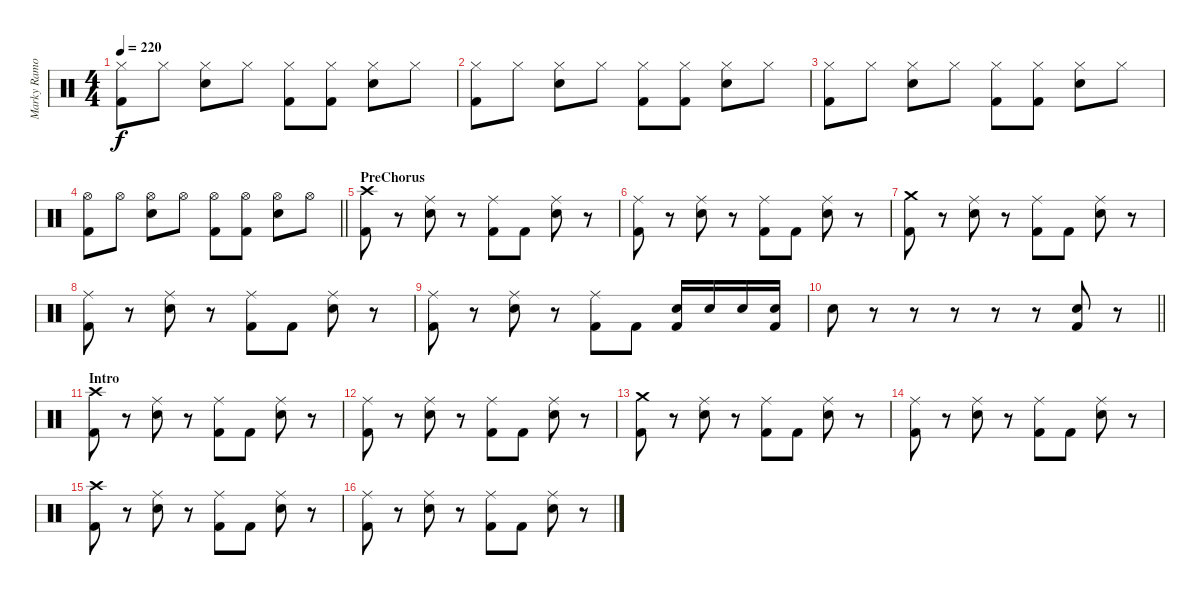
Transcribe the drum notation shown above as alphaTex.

\track ("Marky Ramone" "Marky Ramo") {instrument percussion}
\staff {score}
\articulation defaults
\ts (4 4)
\tempo 220
\clef neutral
\ks c
("Hi-Hat (closed)" "Kick (hit) 2").8{dy f} "Hi-Hat (closed)".8 ("Hi-Hat (closed)" "Electric Snare (hit)").8 "Hi-Hat (closed)".8 ("Hi-Hat (closed)" "Kick (hit) 2").8 ("Hi-Hat (closed)" "Kick (hit) 2").8 ("Hi-Hat (closed)" "Electric Snare (hit)").8 "Hi-Hat (closed)".8 |
("Hi-Hat (closed)" "Kick (hit) 2").8 "Hi-Hat (closed)".8 ("Hi-Hat (closed)" "Electric Snare (hit)").8 "Hi-Hat (closed)".8 ("Hi-Hat (closed)" "Kick (hit) 2").8 ("Hi-Hat (closed)" "Kick (hit) 2").8 ("Hi-Hat (closed)" "Electric Snare (hit)").8 "Hi-Hat (closed)".8 |
("Hi-Hat (closed)" "Kick (hit) 2").8 "Hi-Hat (closed)".8 ("Hi-Hat (closed)" "Electric Snare (hit)").8 "Hi-Hat (closed)".8 ("Hi-Hat (closed)" "Kick (hit) 2").8 ("Hi-Hat (closed)" "Kick (hit) 2").8 ("Hi-Hat (closed)" "Electric Snare (hit)").8 "Hi-Hat (closed)".8 |
\barLineRight lightlight
("Hi-Hat (open)" "Kick (hit) 2").8 "Hi-Hat (open)".8 ("Hi-Hat (open)" "Electric Snare (hit)").8 "Hi-Hat (open)".8 ("Hi-Hat (open)" "Kick (hit) 2").8 ("Hi-Hat (open)" "Kick (hit) 2").8 ("Hi-Hat (open)" "Electric Snare (hit)").8 "Hi-Hat (open)".8 |
\section ("" "PreChorus")
("Crash high (hit)" "Kick (hit) 2").8 r.8 ("Ride (middle)" "Electric Snare (hit)").8 r.8 ("Ride (middle)" "Kick (hit) 2").8 "Kick (hit) 2".8 ("Ride (middle)" "Electric Snare (hit)").8 r.8 |
("Ride (middle)" "Kick (hit) 2").8 r.8 ("Ride (middle)" "Electric Snare (hit)").8 r.8 ("Ride (middle)" "Kick (hit) 2").8 "Kick (hit) 2".8 ("Ride (middle)" "Electric Snare (hit)").8 r.8 |
("Crash medium (hit)" "Kick (hit) 2").8 r.8 ("Ride (middle)" "Electric Snare (hit)").8 r.8 ("Ride (middle)" "Kick (hit) 2").8 "Kick (hit) 2".8 ("Ride (middle)" "Electric Snare (hit)").8 r.8 |
("Ride (middle)" "Kick (hit) 2").8 r.8 ("Ride (middle)" "Electric Snare (hit)").8 r.8 ("Ride (middle)" "Kick (hit) 2").8 "Kick (hit) 2".8 ("Ride (middle)" "Electric Snare (hit)").8 r.8 |
("Ride (middle)" "Kick (hit) 2").8 r.8 ("Ride (middle)" "Electric Snare (hit)").8 r.8 ("Ride (middle)" "Kick (hit) 2").8 "Kick (hit) 2".8 ("Electric Snare (hit)" "Kick (hit) 2").16 "Electric Snare (hit)".16 "Electric Snare (hit)".16 ("Electric Snare (hit)" "Kick (hit) 2").16 |
\barLineRight lightlight "Electric Snare (hit)".8
r.8 r.8 r.8 r.8 r.8 ("Electric Snare (hit)" "Kick (hit) 2").8 r.8 |
\section ("" "Intro")
("Crash high (hit)" "Kick (hit) 2").8 r.8 ("Ride (middle)" "Electric Snare (hit)").8 r.8 ("Ride (middle)" "Kick (hit) 2").8 "Kick (hit) 2".8 ("Ride (middle)" "Electric Snare (hit)").8 r.8 |
("Ride (middle)" "Kick (hit) 2").8 r.8 ("Ride (middle)" "Electric Snare (hit)").8 r.8 ("Ride (middle)" "Kick (hit) 2").8 "Kick (hit) 2".8 ("Ride (middle)" "Electric Snare (hit)").8 r.8 |
("Crash medium (hit)" "Kick (hit) 2").8 r.8 ("Ride (middle)" "Electric Snare (hit)").8 r.8 ("Ride (middle)" "Kick (hit) 2").8 "Kick (hit) 2".8 ("Ride (middle)" "Electric Snare (hit)").8 r.8 |
("Ride (middle)" "Kick (hit) 2").8 r.8 ("Ride (middle)" "Electric Snare (hit)").8 r.8 ("Ride (middle)" "Kick (hit) 2").8 "Kick (hit) 2".8 ("Ride (middle)" "Electric Snare (hit)").8 r.8 |
("Crash high (hit)" "Kick (hit) 2").8 r.8 ("Ride (middle)" "Electric Snare (hit)").8 r.8 ("Ride (middle)" "Kick (hit) 2").8 "Kick (hit) 2".8 ("Ride (middle)" "Electric Snare (hit)").8 r.8 |
("Ride (middle)" "Kick (hit) 2").8 r.8 ("Ride (middle)" "Electric Snare (hit)").8 r.8 ("Ride (middle)" "Kick (hit) 2").8 "Kick (hit) 2".8 ("Ride (middle)" "Electric Snare (hit)").8 r.8
